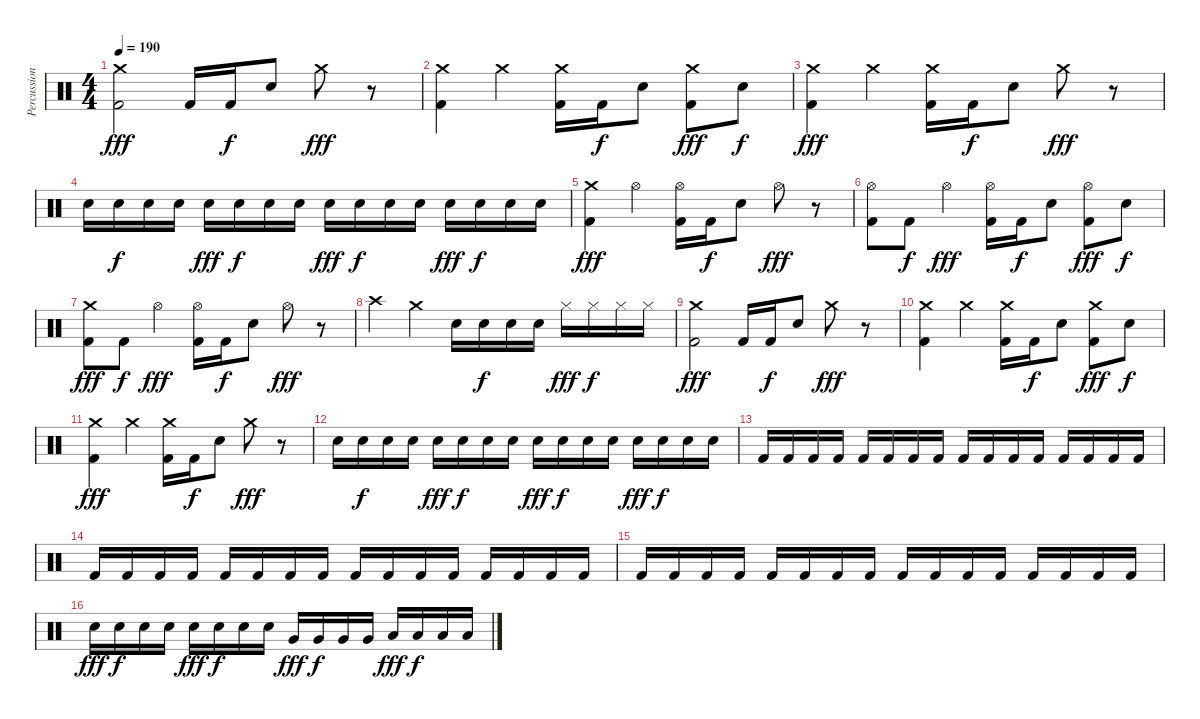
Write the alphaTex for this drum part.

\track ("Percussions" "Percussion") {instrument percussion}
\staff {score}
\articulation defaults
\ts (4 4)
\tempo 190
\clef neutral
\ks c
("Crash medium (hit)" "Kick (hit) 2").2{dy fff} "Kick (hit) 2".16 "Kick (hit) 2".16{dy f} "Snare (hit) 2".8 "Crash medium (hit)".8{dy fff} r.8 |
("Crash medium (hit)" "Kick (hit) 2").4 "Crash medium (hit)".4 ("Crash medium (hit)" "Kick (hit) 2").16 "Kick (hit) 2".16{dy f} "Snare (hit) 2".8 ("Crash medium (hit)" "Kick (hit) 2").8{dy fff} "Snare (hit) 2".8{dy f} |
("Crash medium (hit)" "Kick (hit) 2").4{dy fff} "Crash medium (hit)".4 ("Crash medium (hit)" "Kick (hit) 2").16 "Kick (hit) 2".16{dy f} "Snare (hit) 2".8 "Crash medium (hit)".8{dy fff} r.8 |
"Snare (hit) 2".16 "Snare (hit) 2".16{dy f} "Snare (hit) 2".16 "Snare (hit) 2".16 "Snare (hit) 2".16{dy fff} "Snare (hit) 2".16{dy f} "Snare (hit) 2".16 "Snare (hit) 2".16 "Snare (hit) 2".16{dy fff} "Snare (hit) 2".16{dy f} "Snare (hit) 2".16 "Snare (hit) 2".16 "Snare (hit) 2".16{dy fff} "Snare (hit) 2".16{dy f} "Snare (hit) 2".16 "Snare (hit) 2".16 |
("Crash medium (hit)" "Kick (hit) 2").4{dy fff} "Hi-Hat (open)".4 ("Hi-Hat (open)" "Kick (hit) 2").16 "Kick (hit) 2".16{dy f} "Snare (hit) 2".8 "Hi-Hat (open)".8{dy fff} r.8 |
("Hi-Hat (open)" "Kick (hit) 2").8 "Kick (hit) 2".8{dy f} "Hi-Hat (open)".4{dy fff} ("Hi-Hat (open)" "Kick (hit) 2").16 "Kick (hit) 2".16{dy f} "Snare (hit) 2".8 ("Hi-Hat (open)" "Kick (hit) 2").8{dy fff} "Snare (hit) 2".8{dy f} |
("Crash medium (hit)" "Kick (hit) 2").8{dy fff} "Kick (hit) 2".8{dy f} "Hi-Hat (open)".4{dy fff} ("Hi-Hat (open)" "Kick (hit) 2").16 "Kick (hit) 2".16{dy f} "Snare (hit) 2".8 "Hi-Hat (open)".8{dy fff} r.8 |
"Crash high (hit)".4 "Crash medium (hit)".4 "Snare (hit) 2".16 "Snare (hit) 2".16{dy f} "Snare (hit) 2".16 "Snare (hit) 2".16 "Hi-Hat (closed)".16{dy fff} "Hi-Hat (closed)".16{dy f} "Hi-Hat (closed)".16 "Hi-Hat (closed)".16 |
("Crash medium (hit)" "Kick (hit) 2").2{dy fff} "Kick (hit) 2".16 "Kick (hit) 2".16{dy f} "Snare (hit) 2".8 "Crash medium (hit)".8{dy fff} r.8 |
("Crash medium (hit)" "Kick (hit) 2").4 "Crash medium (hit)".4 ("Crash medium (hit)" "Kick (hit) 2").16 "Kick (hit) 2".16{dy f} "Snare (hit) 2".8 ("Crash medium (hit)" "Kick (hit) 2").8{dy fff} "Snare (hit) 2".8{dy f} |
("Crash medium (hit)" "Kick (hit) 2").4{dy fff} "Crash medium (hit)".4 ("Crash medium (hit)" "Kick (hit) 2").16 "Kick (hit) 2".16{dy f} "Snare (hit) 2".8 "Crash medium (hit)".8{dy fff} r.8 |
"Snare (hit) 2".16 "Snare (hit) 2".16{dy f} "Snare (hit) 2".16 "Snare (hit) 2".16 "Snare (hit) 2".16{dy fff} "Snare (hit) 2".16{dy f} "Snare (hit) 2".16 "Snare (hit) 2".16 "Snare (hit) 2".16{dy fff} "Snare (hit) 2".16{dy f} "Snare (hit) 2".16 "Snare (hit) 2".16 "Snare (hit) 2".16{dy fff} "Snare (hit) 2".16{dy f} "Snare (hit) 2".16 "Snare (hit) 2".16 |
"Kick (hit) 2".16 "Kick (hit) 2".16 "Kick (hit) 2".16 "Kick (hit) 2".16 "Kick (hit) 2".16 "Kick (hit) 2".16 "Kick (hit) 2".16 "Kick (hit) 2".16 "Kick (hit) 2".16 "Kick (hit) 2".16 "Kick (hit) 2".16 "Kick (hit) 2".16 "Kick (hit) 2".16 "Kick (hit) 2".16 "Kick (hit) 2".16 "Kick (hit) 2".16 |
"Kick (hit) 2".16 "Kick (hit) 2".16 "Kick (hit) 2".16 "Kick (hit) 2".16 "Kick (hit) 2".16 "Kick (hit) 2".16 "Kick (hit) 2".16 "Kick (hit) 2".16 "Kick (hit) 2".16 "Kick (hit) 2".16 "Kick (hit) 2".16 "Kick (hit) 2".16 "Kick (hit) 2".16 "Kick (hit) 2".16 "Kick (hit) 2".16 "Kick (hit) 2".16 |
"Kick (hit) 2".16 "Kick (hit) 2".16 "Kick (hit) 2".16 "Kick (hit) 2".16 "Kick (hit) 2".16 "Kick (hit) 2".16 "Kick (hit) 2".16 "Kick (hit) 2".16 "Kick (hit) 2".16 "Kick (hit) 2".16 "Kick (hit) 2".16 "Kick (hit) 2".16 "Kick (hit) 2".16 "Kick (hit) 2".16 "Kick (hit) 2".16 "Kick (hit) 2".16 |
"Snare (hit) 2".16{dy fff} "Snare (hit) 2".16{dy f} "Snare (hit) 2".16 "Snare (hit) 2".16 "Snare (hit) 2".16{dy fff} "Snare (hit) 2".16{dy f} "Snare (hit) 2".16 "Snare (hit) 2".16 "Very Low Tom (hit)".16{dy fff} "Very Low Tom (hit)".16{dy f} "Very Low Tom (hit)".16 "Very Low Tom (hit)".16 "Low Floor Tom (hit)".16{dy fff} "Low Floor Tom (hit)".16{dy f} "Low Floor Tom (hit)".16 "Low Floor Tom (hit)".16
